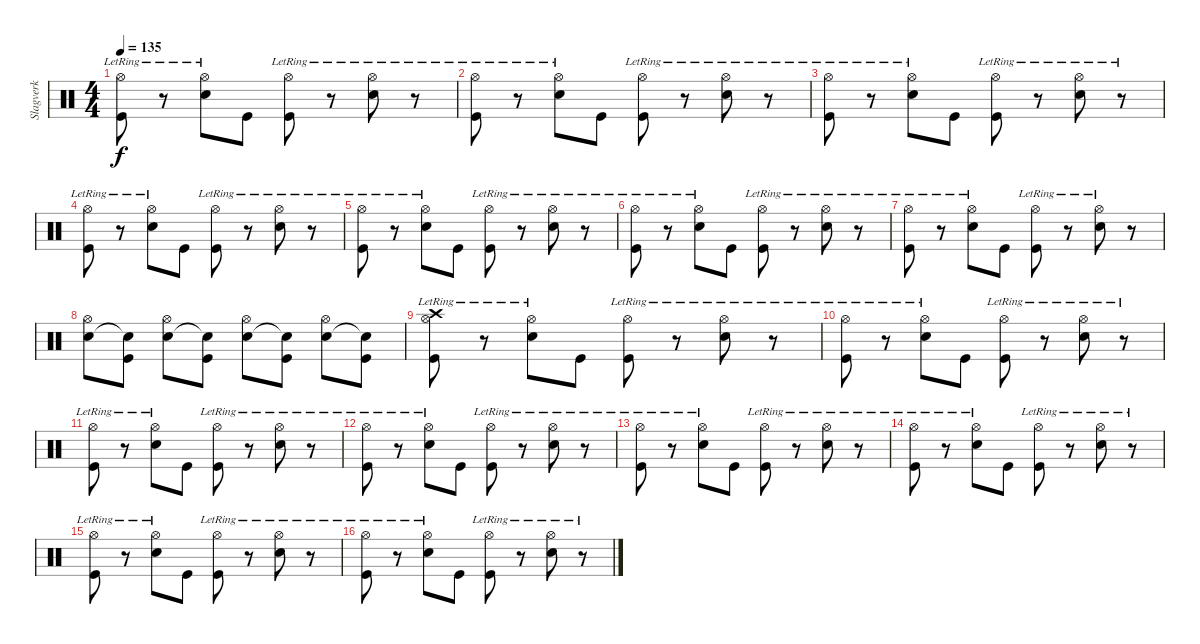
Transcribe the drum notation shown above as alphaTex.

\track ("Slagverk" "Slagverk") {instrument percussion}
\staff {score}
\articulation defaults
\ts (4 4)
\tempo 135
\clef neutral
\ks c
("Hi-Hat (open)"{lr} "Kick (hit)").8{dy f} r.8 ("Electric Snare (hit)" "Hi-Hat (open)"{lr}).8 "Kick (hit)".8 ("Hi-Hat (open)"{lr} "Kick (hit)").8 r.8 ("Electric Snare (hit)" "Hi-Hat (open)"{lr}).8 r.8 |
("Hi-Hat (open)"{lr} "Kick (hit)").8 r.8 ("Electric Snare (hit)" "Hi-Hat (open)"{lr}).8 "Kick (hit)".8 ("Hi-Hat (open)"{lr} "Kick (hit)").8 r.8 ("Electric Snare (hit)" "Hi-Hat (open)"{lr}).8 r.8 |
("Hi-Hat (open)"{lr} "Kick (hit)").8 r.8 ("Electric Snare (hit)" "Hi-Hat (open)"{lr}).8 "Kick (hit)".8 ("Hi-Hat (open)"{lr} "Kick (hit)").8 r.8 ("Electric Snare (hit)" "Hi-Hat (open)"{lr}).8 r.8 |
("Hi-Hat (open)"{lr} "Kick (hit)").8 r.8 ("Electric Snare (hit)" "Hi-Hat (open)"{lr}).8 "Kick (hit)".8 ("Hi-Hat (open)"{lr} "Kick (hit)").8 r.8 ("Electric Snare (hit)" "Hi-Hat (open)"{lr}).8 r.8 |
("Hi-Hat (open)"{lr} "Kick (hit)").8 r.8 ("Electric Snare (hit)" "Hi-Hat (open)"{lr}).8 "Kick (hit)".8 ("Hi-Hat (open)"{lr} "Kick (hit)").8 r.8 ("Electric Snare (hit)" "Hi-Hat (open)"{lr}).8 r.8 |
("Hi-Hat (open)"{lr} "Kick (hit)").8 r.8 ("Electric Snare (hit)" "Hi-Hat (open)"{lr}).8 "Kick (hit)".8 ("Hi-Hat (open)"{lr} "Kick (hit)").8 r.8 ("Electric Snare (hit)" "Hi-Hat (open)"{lr}).8 r.8 |
("Hi-Hat (open)"{lr} "Kick (hit)").8 r.8 ("Electric Snare (hit)" "Hi-Hat (open)"{lr}).8 "Kick (hit)".8 ("Hi-Hat (open)"{lr} "Kick (hit)").8 r.8 ("Electric Snare (hit)" "Hi-Hat (open)"{lr}).8 r.8 |
("Electric Snare (hit)" "Hi-Hat (open)").8 ("Snare (hit)"{t} "Kick (hit)").8 ("Electric Snare (hit)" "Hi-Hat (open)").8 ("Snare (hit)"{t} "Kick (hit)").8 ("Electric Snare (hit)" "Hi-Hat (open)").8 ("Snare (hit)"{t} "Kick (hit)").8 ("Electric Snare (hit)" "Hi-Hat (open)").8 ("Snare (hit)"{t} "Kick (hit)").8 |
("Crash high (hit)"{lr} "Hi-Hat (open)"{lr} "Kick (hit)").8 r.8 ("Electric Snare (hit)" "Hi-Hat (open)"{lr}).8 "Kick (hit)".8 ("Hi-Hat (open)"{lr} "Kick (hit)").8 r.8 ("Electric Snare (hit)" "Hi-Hat (open)"{lr}).8 r.8 |
("Hi-Hat (open)"{lr} "Kick (hit)").8 r.8 ("Electric Snare (hit)" "Hi-Hat (open)"{lr}).8 "Kick (hit)".8 ("Hi-Hat (open)"{lr} "Kick (hit)").8 r.8 ("Electric Snare (hit)" "Hi-Hat (open)"{lr}).8 r.8 |
("Hi-Hat (open)"{lr} "Kick (hit)").8 r.8 ("Electric Snare (hit)" "Hi-Hat (open)"{lr}).8 "Kick (hit)".8 ("Hi-Hat (open)"{lr} "Kick (hit)").8 r.8 ("Electric Snare (hit)" "Hi-Hat (open)"{lr}).8 r.8 |
("Hi-Hat (open)"{lr} "Kick (hit)").8 r.8 ("Electric Snare (hit)" "Hi-Hat (open)"{lr}).8 "Kick (hit)".8 ("Hi-Hat (open)"{lr} "Kick (hit)").8 r.8 ("Electric Snare (hit)" "Hi-Hat (open)"{lr}).8 r.8 |
("Hi-Hat (open)"{lr} "Kick (hit)").8 r.8 ("Electric Snare (hit)" "Hi-Hat (open)"{lr}).8 "Kick (hit)".8 ("Hi-Hat (open)"{lr} "Kick (hit)").8 r.8 ("Electric Snare (hit)" "Hi-Hat (open)"{lr}).8 r.8 |
("Hi-Hat (open)"{lr} "Kick (hit)").8 r.8 ("Electric Snare (hit)" "Hi-Hat (open)"{lr}).8 "Kick (hit)".8 ("Hi-Hat (open)"{lr} "Kick (hit)").8 r.8 ("Electric Snare (hit)" "Hi-Hat (open)"{lr}).8 r.8 |
("Hi-Hat (open)"{lr} "Kick (hit)").8 r.8 ("Electric Snare (hit)" "Hi-Hat (open)"{lr}).8 "Kick (hit)".8 ("Hi-Hat (open)"{lr} "Kick (hit)").8 r.8 ("Electric Snare (hit)" "Hi-Hat (open)"{lr}).8 r.8 |
("Hi-Hat (open)"{lr} "Kick (hit)").8 r.8 ("Electric Snare (hit)" "Hi-Hat (open)"{lr}).8 "Kick (hit)".8 ("Hi-Hat (open)"{lr} "Kick (hit)").8 r.8 ("Electric Snare (hit)" "Hi-Hat (open)"{lr}).8 r.8
